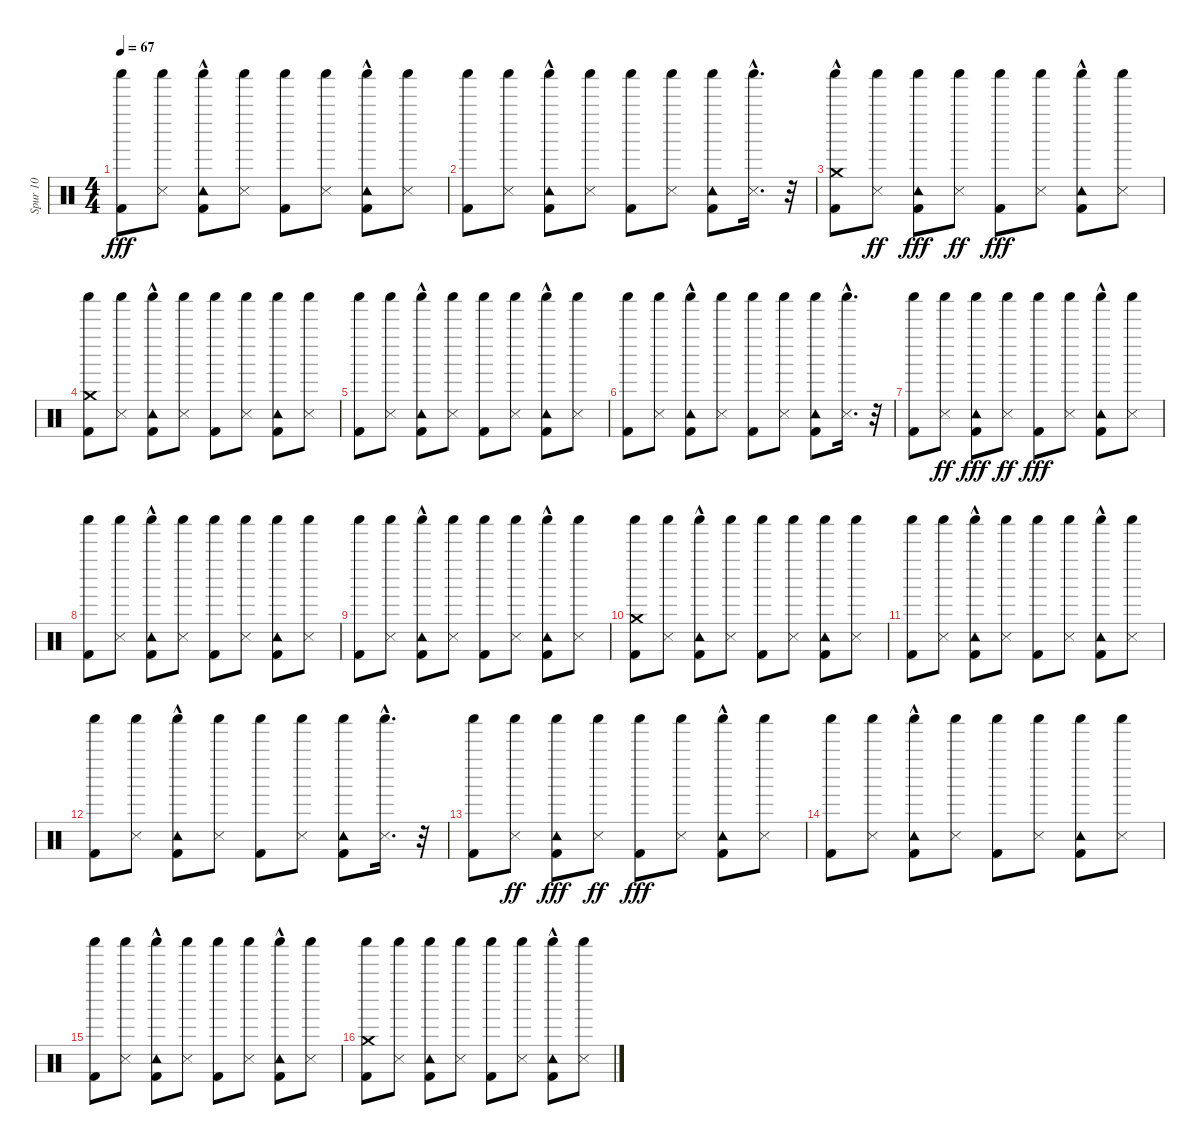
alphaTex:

\track ("Spur 10" "Spur 10") {instrument percussion}
\staff {score}
\articulation defaults
\ts (4 4)
\tempo 67
\clef neutral
\ks c
("Kick (hit) 2" "Shaker (hit)").8{dy fff} ("Snare (side stick) 3" "Shaker (hit)").8 ("Kick (hit) 2" "Tambourine (hit)"{hac} "Shaker (hit)").8 ("Snare (side stick) 3" "Shaker (hit)").8 ("Kick (hit) 2" "Shaker (hit)").8 ("Snare (side stick) 3" "Shaker (hit)").8 ("Kick (hit) 2" "Tambourine (hit)"{hac} "Shaker (hit)").8 ("Snare (side stick) 3" "Shaker (hit)").8 |
("Kick (hit) 2" "Shaker (hit)").8 ("Snare (side stick) 3" "Shaker (hit)").8 ("Kick (hit) 2" "Tambourine (hit)"{hac} "Shaker (hit)").8 ("Snare (side stick) 3" "Shaker (hit)").8 ("Kick (hit) 2" "Shaker (hit)").8 ("Snare (side stick) 3" "Shaker (hit)").8 ("Kick (hit) 2" "Tambourine (hit)" "Shaker (hit)").8 ("Snare (side stick) 3"{hac} "Shaker (hit)").16{d} r.32 |
("Kick (hit) 2" "Crash medium (hit)"{hac} "Shaker (hit)").8 ("Snare (side stick) 3" "Shaker (hit)").8{dy ff} ("Kick (hit) 2" "Tambourine (hit)" "Shaker (hit)").8{dy fff} ("Snare (side stick) 3" "Shaker (hit)").8{dy ff} ("Kick (hit) 2" "Shaker (hit)").8{dy fff} ("Snare (side stick) 3" "Shaker (hit)").8 ("Kick (hit) 2" "Tambourine (hit)"{hac} "Shaker (hit)").8 ("Snare (side stick) 3" "Shaker (hit)").8 |
("Kick (hit) 2" "Crash medium (hit)" "Shaker (hit)").8 ("Snare (side stick) 3" "Shaker (hit)").8 ("Kick (hit) 2" "Tambourine (hit)"{hac} "Shaker (hit)").8 ("Snare (side stick) 3" "Shaker (hit)").8 ("Kick (hit) 2" "Shaker (hit)").8 ("Snare (side stick) 3" "Shaker (hit)").8 ("Kick (hit) 2" "Tambourine (hit)" "Shaker (hit)").8 ("Snare (side stick) 3" "Shaker (hit)").8 |
("Kick (hit) 2" "Shaker (hit)").8 ("Snare (side stick) 3" "Shaker (hit)").8 ("Kick (hit) 2" "Tambourine (hit)"{hac} "Shaker (hit)").8 ("Snare (side stick) 3" "Shaker (hit)").8 ("Kick (hit) 2" "Shaker (hit)").8 ("Snare (side stick) 3" "Shaker (hit)").8 ("Kick (hit) 2" "Tambourine (hit)"{hac} "Shaker (hit)").8 ("Snare (side stick) 3" "Shaker (hit)").8 |
("Kick (hit) 2" "Shaker (hit)").8 ("Snare (side stick) 3" "Shaker (hit)").8 ("Kick (hit) 2" "Tambourine (hit)"{hac} "Shaker (hit)").8 ("Snare (side stick) 3" "Shaker (hit)").8 ("Kick (hit) 2" "Shaker (hit)").8 ("Snare (side stick) 3" "Shaker (hit)").8 ("Kick (hit) 2" "Tambourine (hit)" "Shaker (hit)").8 ("Snare (side stick) 3"{hac} "Shaker (hit)").16{d} r.32 |
("Kick (hit) 2" "Shaker (hit)").8 ("Snare (side stick) 3" "Shaker (hit)").8{dy ff} ("Kick (hit) 2" "Tambourine (hit)" "Shaker (hit)").8{dy fff} ("Snare (side stick) 3" "Shaker (hit)").8{dy ff} ("Kick (hit) 2" "Shaker (hit)").8{dy fff} ("Snare (side stick) 3" "Shaker (hit)").8 ("Kick (hit) 2" "Tambourine (hit)"{hac} "Shaker (hit)").8 ("Snare (side stick) 3" "Shaker (hit)").8 |
("Kick (hit) 2" "Shaker (hit)").8 ("Snare (side stick) 3" "Shaker (hit)").8 ("Kick (hit) 2" "Tambourine (hit)"{hac} "Shaker (hit)").8 ("Snare (side stick) 3" "Shaker (hit)").8 ("Kick (hit) 2" "Shaker (hit)").8 ("Snare (side stick) 3" "Shaker (hit)").8 ("Kick (hit) 2" "Tambourine (hit)" "Shaker (hit)").8 ("Snare (side stick) 3" "Shaker (hit)").8 |
("Kick (hit) 2" "Shaker (hit)").8 ("Snare (side stick) 3" "Shaker (hit)").8 ("Kick (hit) 2" "Tambourine (hit)"{hac} "Shaker (hit)").8 ("Snare (side stick) 3" "Shaker (hit)").8 ("Kick (hit) 2" "Shaker (hit)").8 ("Snare (side stick) 3" "Shaker (hit)").8 ("Kick (hit) 2" "Tambourine (hit)"{hac} "Shaker (hit)").8 ("Snare (side stick) 3" "Shaker (hit)").8 |
("Kick (hit) 2" "Crash medium (hit)" "Shaker (hit)").8 ("Snare (side stick) 3" "Shaker (hit)").8 ("Kick (hit) 2" "Tambourine (hit)"{hac} "Shaker (hit)").8 ("Snare (side stick) 3" "Shaker (hit)").8 ("Kick (hit) 2" "Shaker (hit)").8 ("Snare (side stick) 3" "Shaker (hit)").8 ("Kick (hit) 2" "Tambourine (hit)" "Shaker (hit)").8 ("Snare (side stick) 3" "Shaker (hit)").8 |
("Kick (hit) 2" "Shaker (hit)").8 ("Snare (side stick) 3" "Shaker (hit)").8 ("Kick (hit) 2" "Tambourine (hit)"{hac} "Shaker (hit)").8 ("Snare (side stick) 3" "Shaker (hit)").8 ("Kick (hit) 2" "Shaker (hit)").8 ("Snare (side stick) 3" "Shaker (hit)").8 ("Kick (hit) 2" "Tambourine (hit)"{hac} "Shaker (hit)").8 ("Snare (side stick) 3" "Shaker (hit)").8 |
("Kick (hit) 2" "Shaker (hit)").8 ("Snare (side stick) 3" "Shaker (hit)").8 ("Kick (hit) 2" "Tambourine (hit)"{hac} "Shaker (hit)").8 ("Snare (side stick) 3" "Shaker (hit)").8 ("Kick (hit) 2" "Shaker (hit)").8 ("Snare (side stick) 3" "Shaker (hit)").8 ("Kick (hit) 2" "Tambourine (hit)" "Shaker (hit)").8 ("Snare (side stick) 3"{hac} "Shaker (hit)").16{d} r.32 |
("Kick (hit) 2" "Shaker (hit)").8 ("Snare (side stick) 3" "Shaker (hit)").8{dy ff} ("Kick (hit) 2" "Tambourine (hit)" "Shaker (hit)").8{dy fff} ("Snare (side stick) 3" "Shaker (hit)").8{dy ff} ("Kick (hit) 2" "Shaker (hit)").8{dy fff} ("Snare (side stick) 3" "Shaker (hit)").8 ("Kick (hit) 2" "Tambourine (hit)"{hac} "Shaker (hit)").8 ("Snare (side stick) 3" "Shaker (hit)").8 |
("Kick (hit) 2" "Shaker (hit)").8 ("Snare (side stick) 3" "Shaker (hit)").8 ("Kick (hit) 2" "Tambourine (hit)"{hac} "Shaker (hit)").8 ("Snare (side stick) 3" "Shaker (hit)").8 ("Kick (hit) 2" "Shaker (hit)").8 ("Snare (side stick) 3" "Shaker (hit)").8 ("Kick (hit) 2" "Tambourine (hit)" "Shaker (hit)").8 ("Snare (side stick) 3" "Shaker (hit)").8 |
("Kick (hit) 2" "Shaker (hit)").8 ("Snare (side stick) 3" "Shaker (hit)").8 ("Kick (hit) 2" "Tambourine (hit)"{hac} "Shaker (hit)").8 ("Snare (side stick) 3" "Shaker (hit)").8 ("Kick (hit) 2" "Shaker (hit)").8 ("Snare (side stick) 3" "Shaker (hit)").8 ("Kick (hit) 2" "Tambourine (hit)"{hac} "Shaker (hit)").8 ("Snare (side stick) 3" "Shaker (hit)").8 |
("Kick (hit) 2" "Crash medium (hit)" "Shaker (hit)").8 ("Snare (side stick) 3" "Shaker (hit)").8 ("Kick (hit) 2" "Tambourine (hit)" "Shaker (hit)").8 ("Snare (side stick) 3" "Shaker (hit)").8 ("Kick (hit) 2" "Shaker (hit)").8 ("Snare (side stick) 3" "Shaker (hit)").8 ("Kick (hit) 2"{hac} "Tambourine (hit)" "Shaker (hit)").8 ("Snare (side stick) 3" "Shaker (hit)").8
